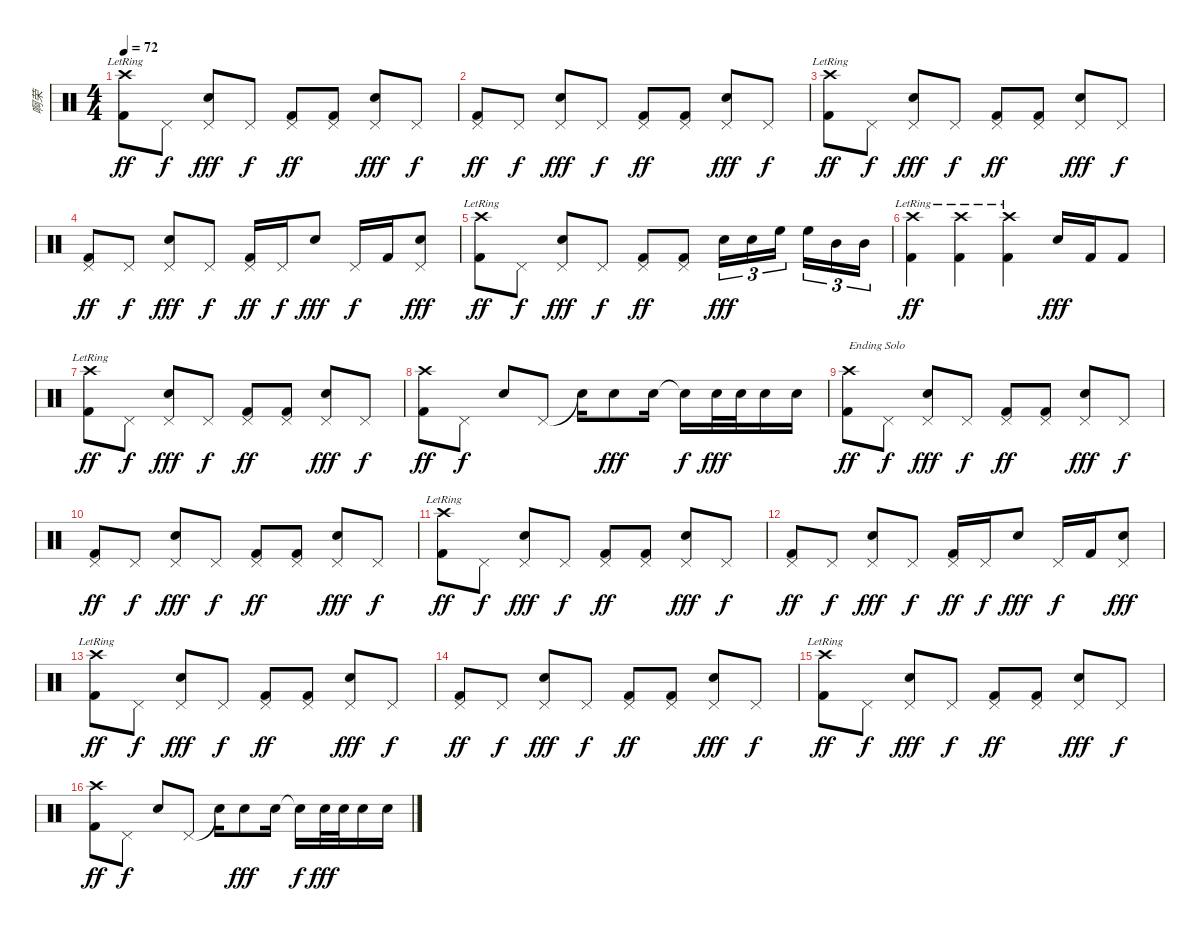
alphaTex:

\track ("啊荣" "啊荣") {instrument percussion}
\staff {score}
\articulation defaults
\ts (4 4)
\tempo 72
\clef neutral
\ks c
("Crash high (hit)"{lr} "Kick (hit) 2").8{dy ff} "Pedal Hi-Hat (hit)".8{dy f} ("Pedal Hi-Hat (hit)" "Electric Snare (hit)").8{dy fff} "Pedal Hi-Hat (hit)".8{dy f} ("Pedal Hi-Hat (hit)" "Kick (hit) 2").8{dy ff} ("Pedal Hi-Hat (hit)" "Kick (hit) 2").8 ("Pedal Hi-Hat (hit)" "Electric Snare (hit)").8{dy fff} "Pedal Hi-Hat (hit)".8{dy f} |
("Pedal Hi-Hat (hit)" "Kick (hit) 2").8{dy ff} "Pedal Hi-Hat (hit)".8{dy f} ("Pedal Hi-Hat (hit)" "Electric Snare (hit)").8{dy fff} "Pedal Hi-Hat (hit)".8{dy f} ("Pedal Hi-Hat (hit)" "Kick (hit) 2").8{dy ff} ("Pedal Hi-Hat (hit)" "Kick (hit) 2").8 ("Pedal Hi-Hat (hit)" "Electric Snare (hit)").8{dy fff} "Pedal Hi-Hat (hit)".8{dy f} |
("Crash high (hit)"{lr} "Kick (hit) 2").8{dy ff} "Pedal Hi-Hat (hit)".8{dy f} ("Pedal Hi-Hat (hit)" "Electric Snare (hit)").8{dy fff} "Pedal Hi-Hat (hit)".8{dy f} ("Pedal Hi-Hat (hit)" "Kick (hit) 2").8{dy ff} ("Pedal Hi-Hat (hit)" "Kick (hit) 2").8 ("Pedal Hi-Hat (hit)" "Electric Snare (hit)").8{dy fff} "Pedal Hi-Hat (hit)".8{dy f} |
("Pedal Hi-Hat (hit)" "Kick (hit) 2").8{dy ff} "Pedal Hi-Hat (hit)".8{dy f} ("Pedal Hi-Hat (hit)" "Electric Snare (hit)").8{dy fff} "Pedal Hi-Hat (hit)".8{dy f} ("Pedal Hi-Hat (hit)" "Kick (hit) 2").16{dy ff} "Pedal Hi-Hat (hit)".16{dy f} "Electric Snare (hit)".8{dy fff} "Pedal Hi-Hat (hit)".16{dy f} "Kick (hit) 2".16 ("Pedal Hi-Hat (hit)" "Electric Snare (hit)").8{dy fff} |
("Crash high (hit)"{lr} "Kick (hit) 2").8{dy ff} "Pedal Hi-Hat (hit)".8{dy f} ("Pedal Hi-Hat (hit)" "Electric Snare (hit)").8{dy fff} "Pedal Hi-Hat (hit)".8{dy f} ("Pedal Hi-Hat (hit)" "Kick (hit) 2").8{dy ff} ("Pedal Hi-Hat (hit)" "Kick (hit) 2").8 "Electric Snare (hit)".16{tu (3 2) dy fff} "Electric Snare (hit)".16{tu (3 2)} "High Floor Tom (hit)".16{tu (3 2)} "High Floor Tom (hit)".16{tu (3 2)} "Mid Tom (hit)".16{tu (3 2)} "Mid Tom (hit)".16{tu (3 2)} |
("Crash high (hit)"{lr} "Kick (hit) 2").4{dy ff} ("Crash high (hit)"{lr} "Kick (hit) 2").4 ("Crash high (hit)"{lr} "Kick (hit) 2").4 "Electric Snare (hit)".16{dy fff} "Kick (hit) 2".16 "Kick (hit) 2".8 |
("Crash high (hit)"{lr} "Kick (hit) 2").8{dy ff} "Pedal Hi-Hat (hit)".8{dy f} ("Pedal Hi-Hat (hit)" "Electric Snare (hit)").8{dy fff} "Pedal Hi-Hat (hit)".8{dy f} ("Pedal Hi-Hat (hit)" "Kick (hit) 2").8{dy ff} ("Pedal Hi-Hat (hit)" "Kick (hit) 2").8 ("Pedal Hi-Hat (hit)" "Electric Snare (hit)").8{dy fff} "Pedal Hi-Hat (hit)".8{dy f} |
("Crash high (hit)" "Kick (hit) 2").8{dy ff} "Pedal Hi-Hat (hit)".8{dy f} "Electric Snare (hit)".8 "Pedal Hi-Hat (hit)".8 "Snare (hit)"{t}.16 "Electric Snare (hit)".8{dy fff} "Electric Snare (hit)".16 "Snare (hit)"{t}.16{dy f} "Electric Snare (hit)".32{dy fff} "Electric Snare (hit)".32 "Electric Snare (hit)".16 "Electric Snare (hit)".16 |
("Crash high (hit)" "Kick (hit) 2").8{txt "Ending Solo" dy ff} "Pedal Hi-Hat (hit)".8{dy f} ("Pedal Hi-Hat (hit)" "Electric Snare (hit)").8{dy fff} "Pedal Hi-Hat (hit)".8{dy f} ("Pedal Hi-Hat (hit)" "Kick (hit) 2").8{dy ff} ("Pedal Hi-Hat (hit)" "Kick (hit) 2").8 ("Pedal Hi-Hat (hit)" "Electric Snare (hit)").8{dy fff} "Pedal Hi-Hat (hit)".8{dy f} |
("Pedal Hi-Hat (hit)" "Kick (hit) 2").8{dy ff} "Pedal Hi-Hat (hit)".8{dy f} ("Pedal Hi-Hat (hit)" "Electric Snare (hit)").8{dy fff} "Pedal Hi-Hat (hit)".8{dy f} ("Pedal Hi-Hat (hit)" "Kick (hit) 2").8{dy ff} ("Pedal Hi-Hat (hit)" "Kick (hit) 2").8 ("Pedal Hi-Hat (hit)" "Electric Snare (hit)").8{dy fff} "Pedal Hi-Hat (hit)".8{dy f} |
("Crash high (hit)"{lr} "Kick (hit) 2").8{dy ff} "Pedal Hi-Hat (hit)".8{dy f} ("Pedal Hi-Hat (hit)" "Electric Snare (hit)").8{dy fff} "Pedal Hi-Hat (hit)".8{dy f} ("Pedal Hi-Hat (hit)" "Kick (hit) 2").8{dy ff} ("Pedal Hi-Hat (hit)" "Kick (hit) 2").8 ("Pedal Hi-Hat (hit)" "Electric Snare (hit)").8{dy fff} "Pedal Hi-Hat (hit)".8{dy f} |
("Pedal Hi-Hat (hit)" "Kick (hit) 2").8{dy ff} "Pedal Hi-Hat (hit)".8{dy f} ("Pedal Hi-Hat (hit)" "Electric Snare (hit)").8{dy fff} "Pedal Hi-Hat (hit)".8{dy f} ("Pedal Hi-Hat (hit)" "Kick (hit) 2").16{dy ff} "Pedal Hi-Hat (hit)".16{dy f} "Electric Snare (hit)".8{dy fff} "Pedal Hi-Hat (hit)".16{dy f} "Kick (hit) 2".16 ("Pedal Hi-Hat (hit)" "Electric Snare (hit)").8{dy fff} |
("Crash high (hit)"{lr} "Kick (hit) 2").8{dy ff} "Pedal Hi-Hat (hit)".8{dy f} ("Pedal Hi-Hat (hit)" "Electric Snare (hit)").8{dy fff} "Pedal Hi-Hat (hit)".8{dy f} ("Pedal Hi-Hat (hit)" "Kick (hit) 2").8{dy ff} ("Pedal Hi-Hat (hit)" "Kick (hit) 2").8 ("Pedal Hi-Hat (hit)" "Electric Snare (hit)").8{dy fff} "Pedal Hi-Hat (hit)".8{dy f} |
("Pedal Hi-Hat (hit)" "Kick (hit) 2").8{dy ff} "Pedal Hi-Hat (hit)".8{dy f} ("Pedal Hi-Hat (hit)" "Electric Snare (hit)").8{dy fff} "Pedal Hi-Hat (hit)".8{dy f} ("Pedal Hi-Hat (hit)" "Kick (hit) 2").8{dy ff} ("Pedal Hi-Hat (hit)" "Kick (hit) 2").8 ("Pedal Hi-Hat (hit)" "Electric Snare (hit)").8{dy fff} "Pedal Hi-Hat (hit)".8{dy f} |
("Crash high (hit)"{lr} "Kick (hit) 2").8{dy ff} "Pedal Hi-Hat (hit)".8{dy f} ("Pedal Hi-Hat (hit)" "Electric Snare (hit)").8{dy fff} "Pedal Hi-Hat (hit)".8{dy f} ("Pedal Hi-Hat (hit)" "Kick (hit) 2").8{dy ff} ("Pedal Hi-Hat (hit)" "Kick (hit) 2").8 ("Pedal Hi-Hat (hit)" "Electric Snare (hit)").8{dy fff} "Pedal Hi-Hat (hit)".8{dy f} |
("Crash high (hit)" "Kick (hit) 2").8{dy ff} "Pedal Hi-Hat (hit)".8{dy f} "Electric Snare (hit)".8 "Pedal Hi-Hat (hit)".8 "Snare (hit)"{t}.16 "Electric Snare (hit)".8{dy fff} "Electric Snare (hit)".16 "Snare (hit)"{t}.16{dy f} "Electric Snare (hit)".32{dy fff} "Electric Snare (hit)".32 "Electric Snare (hit)".16 "Electric Snare (hit)".16
